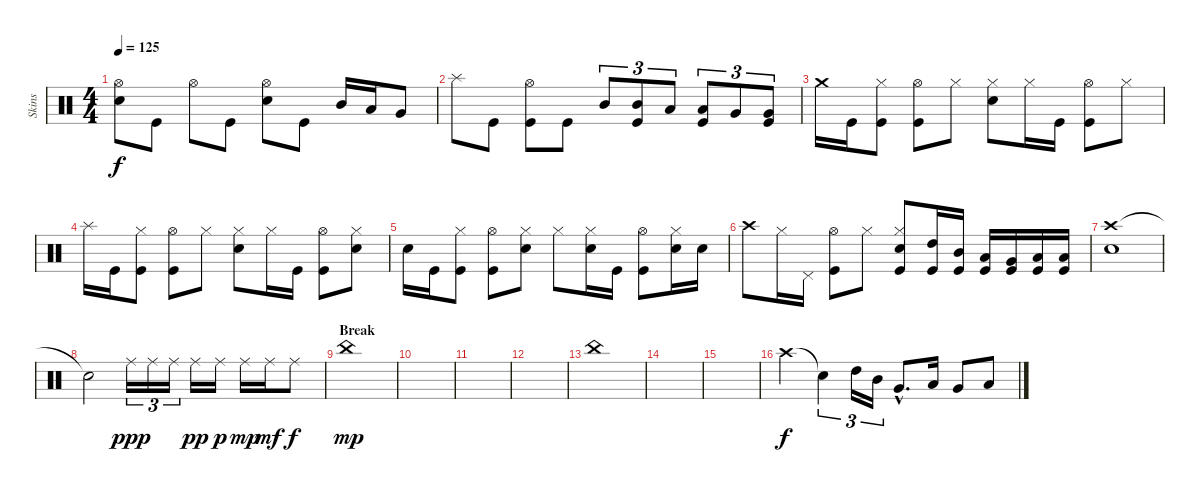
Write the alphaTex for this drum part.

\track ("Skins" "Skins") {instrument percussion}
\staff {score}
\articulation defaults
\ts (4 4)
\tempo 125
\clef neutral
\ks c
("Hi-Hat (open)" "Snare (hit) 2").8{dy f} "Kick (hit)".8 "Hi-Hat (open)".8 "Kick (hit)".8 ("Hi-Hat (open)" "Snare (hit) 2").8 "Kick (hit)".8 "Mid Tom (hit)".16 "Low Tom (hit)".16 "Very Low Tom (hit)".8 |
"Splash (hit)".8 "Kick (hit)".8 ("Hi-Hat (open)" "Kick (hit)").8 "Kick (hit)".8 "Mid Tom (hit)".8{tu (3 2)} ("Mid Tom (hit)" "Kick (hit)").8{tu (3 2)} "Low Tom (hit)".8{tu (3 2)} ("Low Tom (hit)" "Kick (hit)").8{tu (3 2)} "Very Low Tom (hit)".8{tu (3 2)} ("Very Low Tom (hit)" "Kick (hit)").8{tu (3 2)} |
"Crash medium (hit)".16 "Kick (hit)".16 ("Hi-Hat (closed)" "Kick (hit)").8 ("Hi-Hat (open)" "Kick (hit)").8 "Hi-Hat (closed)".8 ("Hi-Hat (closed)" "Electric Snare (hit)").8 "Hi-Hat (closed)".16 "Kick (hit)".16 ("Hi-Hat (open)" "Kick (hit)").8 "Hi-Hat (closed)".8 |
"Splash (hit)".16 "Kick (hit)".16 ("Hi-Hat (closed)" "Kick (hit)").8 ("Hi-Hat (open)" "Kick (hit)").8 "Hi-Hat (closed)".8 ("Hi-Hat (closed)" "Electric Snare (hit)").8 "Hi-Hat (closed)".16 "Kick (hit)".16 ("Hi-Hat (open)" "Kick (hit)").8 ("Hi-Hat (closed)" "Snare (hit) 2").8 |
"Electric Snare (hit)".16 "Kick (hit)".16 ("Hi-Hat (closed)" "Kick (hit)").8 ("Hi-Hat (open)" "Kick (hit)").8 ("Hi-Hat (closed)" "Electric Snare (hit)").8 "Hi-Hat (closed)".8 ("Hi-Hat (closed)" "Electric Snare (hit)").16 "Kick (hit)".16 ("Hi-Hat (open)" "Kick (hit)").8 ("Hi-Hat (closed)" "Snare (hit) 2").16 "Snare (hit) 2".16 |
"Crash high (hit)".8 "Hi-Hat (closed)".16 "Pedal Hi-Hat (hit)".16 ("Hi-Hat (open)" "Kick (hit)").8 "Hi-Hat (closed)".8 ("Hi-Hat (closed)" "Electric Snare (hit)" "Kick (hit)").8 ("High Tom (hit)" "Kick (hit)").16 ("Mid Tom (hit)" "Kick (hit)").16 ("Low Tom (hit)" "Kick (hit)").16 ("Very Low Tom (hit)" "Kick (hit)").16 ("Low Floor Tom (hit)" "Kick (hit)").16 ("Low Floor Tom (hit)" "Kick (hit)").16 |
("Crash high (hit)" "Snare (hit) 2").1 |
"Snare (hit)"{t}.2 "Ride (middle)".16{tu (3 2) dy ppp} "Ride (middle)".16{tu (3 2)} "Ride (middle)".16{tu (3 2)} "Ride (middle)".16{dy pp} "Ride (middle)".16{dy p} "Ride (middle)".16{dy mp} "Ride (middle)".16{dy mf} "Ride (middle)".8{dy f} |
\section ("" "Break")
"China (hit)".1{dy mp} |
|
|
|
"China (hit)".1 |
|
|
"Crash high (hit)".4{dy f} "Snare (hit)"{t}.4{tu (3 2)} "High Tom (hit)".16{tu (3 2)} "Mid Tom (hit)".16{tu (3 2)} "Very Low Tom (hit)"{hac}.8{d} "Low Tom (hit)".16 "Very Low Tom (hit)".8 "Low Floor Tom (hit)".8
